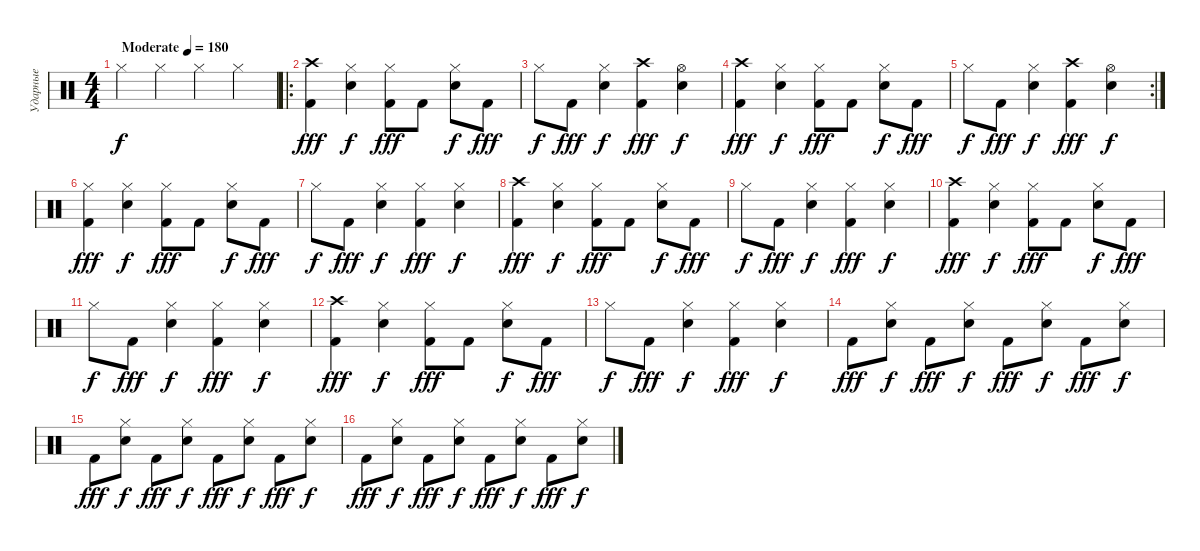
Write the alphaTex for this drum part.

\track ("Ударные" "Ударные") {instrument percussion}
\staff {score}
\articulation defaults
\ts (4 4)
\tempo (180 "Moderate")
\clef neutral
\ks c "Hi-Hat (closed)".4{dy f} "Hi-Hat (closed)".4 "Hi-Hat (closed)".4 "Hi-Hat (closed)".4
|
\ro
("Kick (hit) 2" "Crash high (hit)").4{dy fff} ("Electric Snare (hit)" "Hi-Hat (closed)").4{dy f} ("Kick (hit) 2" "Hi-Hat (closed)").8{dy fff} "Kick (hit) 2".8 ("Electric Snare (hit)" "Hi-Hat (closed)").8{dy f} "Kick (hit) 2".8{dy fff} |
"Hi-Hat (closed)".8{dy f} "Kick (hit) 2".8{dy fff} ("Electric Snare (hit)" "Hi-Hat (closed)").4{dy f} ("Kick (hit) 2" "Crash high (hit)").4{dy fff} ("Electric Snare (hit)" "Hi-Hat (open)").4{dy f} |
("Kick (hit) 2" "Crash high (hit)").4{dy fff} ("Electric Snare (hit)" "Hi-Hat (closed)").4{dy f} ("Kick (hit) 2" "Hi-Hat (closed)").8{dy fff} "Kick (hit) 2".8 ("Electric Snare (hit)" "Hi-Hat (closed)").8{dy f} "Kick (hit) 2".8{dy fff} |
\rc 2 "Hi-Hat (closed)".8{dy f} "Kick (hit) 2".8{dy fff}
("Electric Snare (hit)" "Hi-Hat (closed)").4{dy f} ("Kick (hit) 2" "Crash high (hit)").4{dy fff} ("Electric Snare (hit)" "Hi-Hat (open)").4{dy f} |
("Kick (hit) 2" "Hi-Hat (closed)").4{dy fff} ("Electric Snare (hit)" "Hi-Hat (closed)").4{dy f} ("Kick (hit) 2" "Hi-Hat (closed)").8{dy fff} "Kick (hit) 2".8 ("Electric Snare (hit)" "Hi-Hat (closed)").8{dy f} "Kick (hit) 2".8{dy fff} |
"Hi-Hat (closed)".8{dy f} "Kick (hit) 2".8{dy fff} ("Electric Snare (hit)" "Hi-Hat (closed)").4{dy f} ("Kick (hit) 2" "Hi-Hat (closed)").4{dy fff} ("Electric Snare (hit)" "Hi-Hat (closed)").4{dy f} |
("Kick (hit) 2" "Crash high (hit)").4{dy fff} ("Electric Snare (hit)" "Hi-Hat (closed)").4{dy f} ("Kick (hit) 2" "Hi-Hat (closed)").8{dy fff} "Kick (hit) 2".8 ("Electric Snare (hit)" "Hi-Hat (closed)").8{dy f} "Kick (hit) 2".8{dy fff} |
"Hi-Hat (closed)".8{dy f} "Kick (hit) 2".8{dy fff} ("Electric Snare (hit)" "Hi-Hat (closed)").4{dy f} ("Kick (hit) 2" "Hi-Hat (closed)").4{dy fff} ("Electric Snare (hit)" "Hi-Hat (closed)").4{dy f} |
("Kick (hit) 2" "Crash high (hit)").4{dy fff} ("Electric Snare (hit)" "Hi-Hat (closed)").4{dy f} ("Kick (hit) 2" "Hi-Hat (closed)").8{dy fff} "Kick (hit) 2".8 ("Electric Snare (hit)" "Hi-Hat (closed)").8{dy f} "Kick (hit) 2".8{dy fff} |
"Hi-Hat (closed)".8{dy f} "Kick (hit) 2".8{dy fff} ("Electric Snare (hit)" "Hi-Hat (closed)").4{dy f} ("Kick (hit) 2" "Hi-Hat (closed)").4{dy fff} ("Electric Snare (hit)" "Hi-Hat (closed)").4{dy f} |
("Kick (hit) 2" "Crash high (hit)").4{dy fff} ("Electric Snare (hit)" "Hi-Hat (closed)").4{dy f} ("Kick (hit) 2" "Hi-Hat (closed)").8{dy fff} "Kick (hit) 2".8 ("Electric Snare (hit)" "Hi-Hat (closed)").8{dy f} "Kick (hit) 2".8{dy fff} |
"Hi-Hat (closed)".8{dy f} "Kick (hit) 2".8{dy fff} ("Electric Snare (hit)" "Hi-Hat (closed)").4{dy f} ("Kick (hit) 2" "Hi-Hat (closed)").4{dy fff} ("Electric Snare (hit)" "Hi-Hat (closed)").4{dy f} |
"Kick (hit) 2".8{dy fff} ("Electric Snare (hit)" "Hi-Hat (closed)").8{dy f} "Kick (hit) 2".8{dy fff} ("Electric Snare (hit)" "Hi-Hat (closed)").8{dy f} "Kick (hit) 2".8{dy fff} ("Electric Snare (hit)" "Hi-Hat (closed)").8{dy f} "Kick (hit) 2".8{dy fff} ("Electric Snare (hit)" "Hi-Hat (closed)").8{dy f} |
"Kick (hit) 2".8{dy fff} ("Electric Snare (hit)" "Hi-Hat (closed)").8{dy f} "Kick (hit) 2".8{dy fff} ("Electric Snare (hit)" "Hi-Hat (closed)").8{dy f} "Kick (hit) 2".8{dy fff} ("Electric Snare (hit)" "Hi-Hat (closed)").8{dy f} "Kick (hit) 2".8{dy fff} ("Electric Snare (hit)" "Hi-Hat (closed)").8{dy f} |
"Kick (hit) 2".8{dy fff} ("Electric Snare (hit)" "Hi-Hat (closed)").8{dy f} "Kick (hit) 2".8{dy fff} ("Electric Snare (hit)" "Hi-Hat (closed)").8{dy f} "Kick (hit) 2".8{dy fff} ("Electric Snare (hit)" "Hi-Hat (closed)").8{dy f} "Kick (hit) 2".8{dy fff} ("Electric Snare (hit)" "Hi-Hat (closed)").8{dy f}
